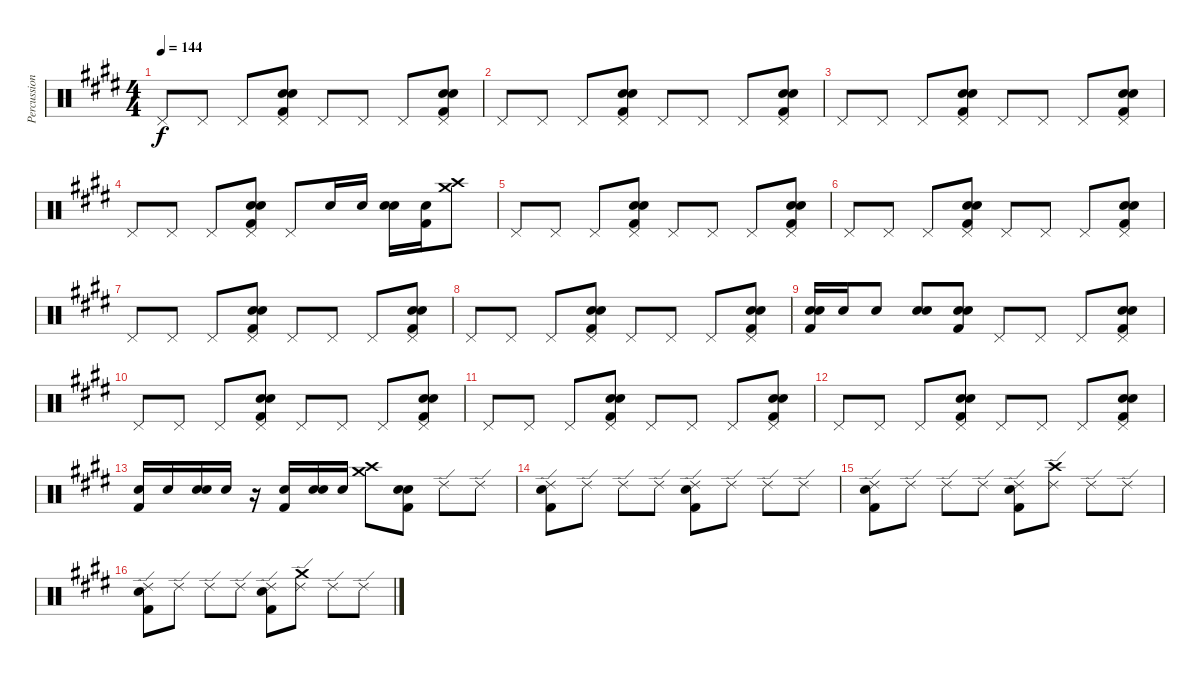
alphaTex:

\track ("Percussion" "Percussion") {instrument percussion}
\staff {score}
\articulation defaults
\ts (4 4)
\tempo 144
\clef neutral
\ks c#minor "Pedal Hi-Hat (hit)".8{dy f} "Pedal Hi-Hat (hit)".8 "Pedal Hi-Hat (hit)".8
("Pedal Hi-Hat (hit)" "Snare (hit) 2" "Snare (hit) 2" "Kick (hit) 2").8 "Pedal Hi-Hat (hit)".8 "Pedal Hi-Hat (hit)".8 "Pedal Hi-Hat (hit)".8 ("Pedal Hi-Hat (hit)" "Snare (hit) 2" "Snare (hit) 2" "Kick (hit) 2").8 |
\ks e "Pedal Hi-Hat (hit)".8 "Pedal Hi-Hat (hit)".8 "Pedal Hi-Hat (hit)".8
("Pedal Hi-Hat (hit)" "Snare (hit) 2" "Snare (hit) 2" "Kick (hit) 2").8 "Pedal Hi-Hat (hit)".8 "Pedal Hi-Hat (hit)".8 "Pedal Hi-Hat (hit)".8 ("Pedal Hi-Hat (hit)" "Snare (hit) 2" "Snare (hit) 2" "Kick (hit) 2").8 |
\ks c#minor "Pedal Hi-Hat (hit)".8 "Pedal Hi-Hat (hit)".8 "Pedal Hi-Hat (hit)".8
("Pedal Hi-Hat (hit)" "Snare (hit) 2" "Snare (hit) 2" "Kick (hit) 2").8 "Pedal Hi-Hat (hit)".8 "Pedal Hi-Hat (hit)".8 "Pedal Hi-Hat (hit)".8 ("Pedal Hi-Hat (hit)" "Snare (hit) 2" "Snare (hit) 2" "Kick (hit) 2").8 |
"Pedal Hi-Hat (hit)".8 "Pedal Hi-Hat (hit)".8 "Pedal Hi-Hat (hit)".8 ("Pedal Hi-Hat (hit)" "Snare (hit) 2" "Snare (hit) 2" "Kick (hit) 2").8 "Pedal Hi-Hat (hit)".8 "Snare (hit) 2".16 "Snare (hit) 2".16 ("Snare (hit) 2" "Snare (hit) 2").16 ("Snare (hit) 2" "Kick (hit) 2").16 ("Crash medium (hit)" "Crash high (hit)").8 |
"Pedal Hi-Hat (hit)".8 "Pedal Hi-Hat (hit)".8 "Pedal Hi-Hat (hit)".8 ("Pedal Hi-Hat (hit)" "Snare (hit) 2" "Snare (hit) 2" "Kick (hit) 2").8 "Pedal Hi-Hat (hit)".8 "Pedal Hi-Hat (hit)".8 "Pedal Hi-Hat (hit)".8 ("Pedal Hi-Hat (hit)" "Snare (hit) 2" "Snare (hit) 2" "Kick (hit) 2").8 |
\ks e "Pedal Hi-Hat (hit)".8 "Pedal Hi-Hat (hit)".8 "Pedal Hi-Hat (hit)".8
("Pedal Hi-Hat (hit)" "Snare (hit) 2" "Snare (hit) 2" "Kick (hit) 2").8 "Pedal Hi-Hat (hit)".8 "Pedal Hi-Hat (hit)".8 "Pedal Hi-Hat (hit)".8 ("Pedal Hi-Hat (hit)" "Snare (hit) 2" "Snare (hit) 2" "Kick (hit) 2").8 |
\ks c#minor "Pedal Hi-Hat (hit)".8 "Pedal Hi-Hat (hit)".8 "Pedal Hi-Hat (hit)".8
("Pedal Hi-Hat (hit)" "Snare (hit) 2" "Snare (hit) 2" "Kick (hit) 2").8 "Pedal Hi-Hat (hit)".8 "Pedal Hi-Hat (hit)".8 "Pedal Hi-Hat (hit)".8 ("Pedal Hi-Hat (hit)" "Snare (hit) 2" "Snare (hit) 2" "Kick (hit) 2").8 |
"Pedal Hi-Hat (hit)".8 "Pedal Hi-Hat (hit)".8 "Pedal Hi-Hat (hit)".8 ("Pedal Hi-Hat (hit)" "Snare (hit) 2" "Snare (hit) 2" "Kick (hit) 2").8 "Pedal Hi-Hat (hit)".8 "Pedal Hi-Hat (hit)".8 "Pedal Hi-Hat (hit)".8 ("Pedal Hi-Hat (hit)" "Snare (hit) 2" "Snare (hit) 2" "Kick (hit) 2").8 |
("Snare (hit) 2" "Snare (hit) 2" "Kick (hit) 2").16 "Snare (hit) 2".16 "Snare (hit) 2".8 ("Snare (hit) 2" "Snare (hit) 2").8 ("Snare (hit) 2" "Snare (hit) 2" "Kick (hit) 2").8 "Pedal Hi-Hat (hit)".8 "Pedal Hi-Hat (hit)".8 "Pedal Hi-Hat (hit)".8 ("Pedal Hi-Hat (hit)" "Snare (hit) 2" "Snare (hit) 2" "Kick (hit) 2").8 |
\ks e "Pedal Hi-Hat (hit)".8 "Pedal Hi-Hat (hit)".8 "Pedal Hi-Hat (hit)".8
("Pedal Hi-Hat (hit)" "Snare (hit) 2" "Snare (hit) 2" "Kick (hit) 2").8 "Pedal Hi-Hat (hit)".8 "Pedal Hi-Hat (hit)".8 "Pedal Hi-Hat (hit)".8 ("Pedal Hi-Hat (hit)" "Snare (hit) 2" "Snare (hit) 2" "Kick (hit) 2").8 |
\ks c#minor "Pedal Hi-Hat (hit)".8 "Pedal Hi-Hat (hit)".8 "Pedal Hi-Hat (hit)".8
("Pedal Hi-Hat (hit)" "Snare (hit) 2" "Snare (hit) 2" "Kick (hit) 2").8 "Pedal Hi-Hat (hit)".8 "Pedal Hi-Hat (hit)".8 "Pedal Hi-Hat (hit)".8 ("Pedal Hi-Hat (hit)" "Snare (hit) 2" "Snare (hit) 2" "Kick (hit) 2").8 |
\ks e "Pedal Hi-Hat (hit)".8 "Pedal Hi-Hat (hit)".8 "Pedal Hi-Hat (hit)".8
("Pedal Hi-Hat (hit)" "Snare (hit) 2" "Snare (hit) 2" "Kick (hit) 2").8 "Pedal Hi-Hat (hit)".8 "Pedal Hi-Hat (hit)".8 "Pedal Hi-Hat (hit)".8 ("Pedal Hi-Hat (hit)" "Snare (hit) 2" "Snare (hit) 2" "Kick (hit) 2").8 |
\ks c#minor
("Snare (hit) 2" "Kick (hit) 2").16 "Snare (hit) 2".16 ("Snare (hit) 2" "Snare (hit) 2").16 "Snare (hit) 2".16 r.16 ("Snare (hit) 2" "Kick (hit) 2").16 ("Snare (hit) 2" "Snare (hit) 2").16 "Snare (hit) 2".16 ("Crash high (hit)" "Crash medium (hit)").8 ("Snare (hit) 2" "Snare (hit) 2" "Kick (hit) 2").8 "Ride (edge) 2".8 "Ride (edge) 2".8 |
\ks e
("Ride (edge) 2" "Snare (hit) 2" "Kick (hit) 2").8 "Ride (edge) 2".8 "Ride (edge) 2".8 "Ride (edge) 2".8 ("Ride (edge) 2" "Snare (hit) 2" "Kick (hit) 2").8 "Ride (edge) 2".8 "Ride (edge) 2".8 "Ride (edge) 2".8 |
\ks c#minor
("Ride (edge) 2" "Snare (hit) 2" "Kick (hit) 2").8 "Ride (edge) 2".8 "Ride (edge) 2".8 "Ride (edge) 2".8 ("Ride (edge) 2" "Snare (hit) 2" "Kick (hit) 2").8 ("Ride (edge) 2" "Crash high (hit)").8 "Ride (edge) 2".8 "Ride (edge) 2".8 |
("Ride (edge) 2" "Snare (hit) 2" "Kick (hit) 2").8 "Ride (edge) 2".8 "Ride (edge) 2".8 "Ride (edge) 2".8 ("Ride (edge) 2" "Snare (hit) 2" "Kick (hit) 2").8 ("Ride (edge) 2" "Crash medium (hit)").8 "Ride (edge) 2".8 "Ride (edge) 2".8
